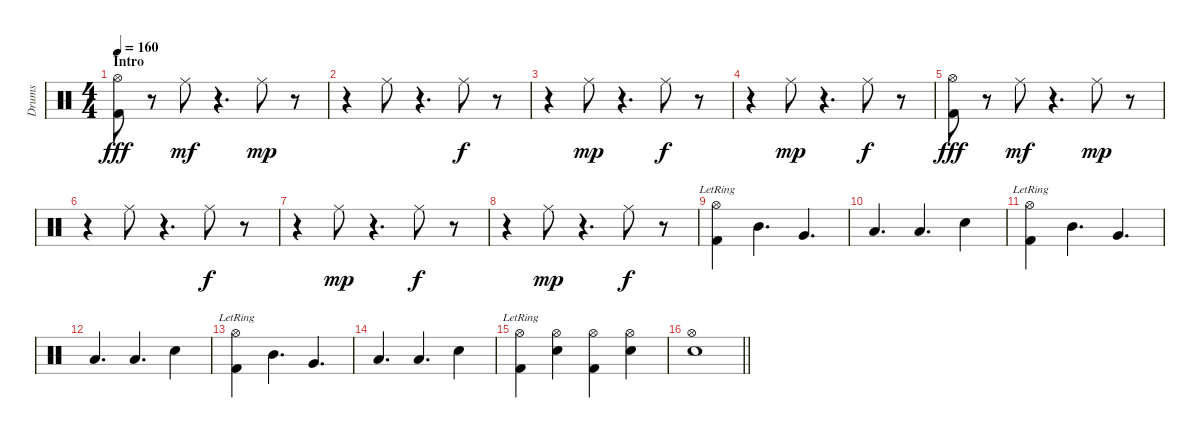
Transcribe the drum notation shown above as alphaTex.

\track ("Drums" "Drums") {instrument percussion}
\staff {score}
\articulation defaults
\ts (4 4)
\section ("" "Intro")
\tempo 160
\clef neutral
\ks c
("Hi-Hat (open)" "Kick (hit) 2").8{dy fff} r.8 "Ride (middle)".8{dy mf} r.4{d} "Ride (middle)".8{dy mp} r.8 |
r.4 "Ride (middle)".8 r.4{d} "Ride (middle)".8{dy f} r.8 |
r.4 "Ride (middle)".8{dy mp} r.4{d} "Ride (middle)".8{dy f} r.8 |
r.4 "Ride (middle)".8{dy mp} r.4{d} "Ride (middle)".8{dy f} r.8 |
("Hi-Hat (open)" "Kick (hit) 2").8{dy fff} r.8 "Ride (middle)".8{dy mf} r.4{d} "Ride (middle)".8{dy mp} r.8 |
r.4 "Ride (middle)".8 r.4{d} "Ride (middle)".8{dy f} r.8 |
r.4 "Ride (middle)".8{dy mp} r.4{d} "Ride (middle)".8{dy f} r.8 |
r.4 "Ride (middle)".8{dy mp} r.4{d} "Ride (middle)".8{dy f} r.8 |
("Hi-Hat (open)"{lr} "Kick (hit) 2").4 "Mid Tom (hit)".4{d} "Very Low Tom (hit)".4{d} |
"Low Tom (hit)".4{d} "Low Floor Tom (hit)".4{d} "Snare (hit) 2".4 |
("Hi-Hat (open)"{lr} "Kick (hit) 2").4 "Mid Tom (hit)".4{d} "Very Low Tom (hit)".4{d} |
"Low Tom (hit)".4{d} "Low Floor Tom (hit)".4{d} "Snare (hit) 2".4 |
("Hi-Hat (open)"{lr} "Kick (hit) 2").4 "Mid Tom (hit)".4{d} "Very Low Tom (hit)".4{d} |
"Low Tom (hit)".4{d} "Low Floor Tom (hit)".4{d} "Snare (hit) 2".4 |
("Hi-Hat (open)"{lr} "Kick (hit) 2").4 ("Hi-Hat (open)" "Snare (hit) 2").4 ("Hi-Hat (open)" "Kick (hit) 2").4 ("Hi-Hat (open)" "Snare (hit) 2").4 |
\barLineRight lightlight
("Hi-Hat (open)" "Snare (hit) 2").1
